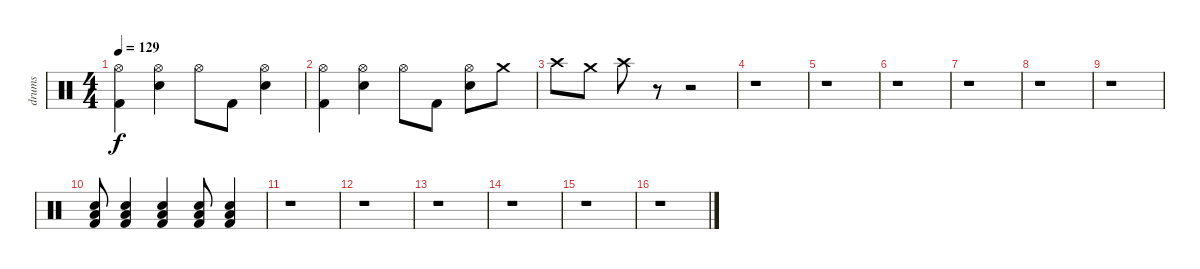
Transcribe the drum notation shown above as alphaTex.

\track ("drums" "drums") {instrument percussion}
\staff {score}
\articulation defaults
\ts (4 4)
\tempo 129
\clef neutral
\ks c
("Kick (hit) 2" "Hi-Hat (open)").4{dy f} ("Hi-Hat (open)" "Snare (hit) 2").4 "Hi-Hat (open)".8 "Kick (hit) 2".8 ("Hi-Hat (open)" "Snare (hit) 2").4 |
("Kick (hit) 2" "Hi-Hat (open)").4 ("Hi-Hat (open)" "Snare (hit) 2").4 "Hi-Hat (open)".8 "Kick (hit) 2".8 ("Hi-Hat (open)" "Snare (hit) 2").8 "Crash medium (hit)".8 |
"Crash high (hit)".8 "Crash medium (hit)".8 "Crash high (hit)".8 r.8 r.2 |
r.1 |
r.1 |
r.1 |
r.1 |
r.1 |
r.1 |
("Kick (hit) 2" "Low Tom (hit)" "Snare (hit) 2").8 ("Kick (hit) 2" "Low Tom (hit)" "Snare (hit) 2").4 ("Kick (hit) 2" "Low Tom (hit)" "Snare (hit) 2").4 ("Kick (hit) 2" "Low Tom (hit)" "Snare (hit) 2").8 ("Kick (hit) 2" "Low Tom (hit)" "Snare (hit) 2").4 |
r.1 |
r.1 |
r.1 |
r.1 |
r.1 |
r.1
